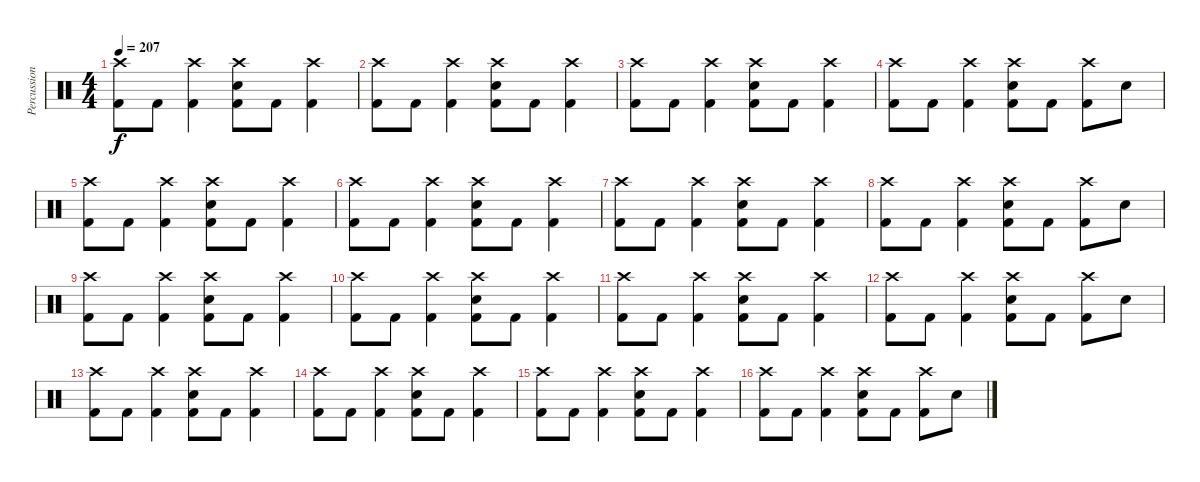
\track ("Percussion" "Percussion") {instrument percussion}
\staff {score}
\articulation defaults
\ts (4 4)
\tempo 207
\clef neutral
\ks c
("Crash high (hit)" "Kick (hit) 2").8{dy f} "Kick (hit) 2".8 ("Crash high (hit)" "Kick (hit) 2").4 ("Crash high (hit)" "Snare (hit) 2" "Kick (hit) 2").8 "Kick (hit) 2".8 ("Crash high (hit)" "Kick (hit) 2").4 |
("Crash high (hit)" "Kick (hit) 2").8 "Kick (hit) 2".8 ("Crash high (hit)" "Kick (hit) 2").4 ("Crash high (hit)" "Snare (hit) 2" "Kick (hit) 2").8 "Kick (hit) 2".8 ("Crash high (hit)" "Kick (hit) 2").4 |
("Crash high (hit)" "Kick (hit) 2").8 "Kick (hit) 2".8 ("Crash high (hit)" "Kick (hit) 2").4 ("Crash high (hit)" "Snare (hit) 2" "Kick (hit) 2").8 "Kick (hit) 2".8 ("Crash high (hit)" "Kick (hit) 2").4 |
("Crash high (hit)" "Kick (hit) 2").8 "Kick (hit) 2".8 ("Crash high (hit)" "Kick (hit) 2").4 ("Crash high (hit)" "Snare (hit) 2" "Kick (hit) 2").8 "Kick (hit) 2".8 ("Crash high (hit)" "Kick (hit) 2").8 "Snare (hit) 2".8 |
("Crash high (hit)" "Kick (hit) 2").8 "Kick (hit) 2".8 ("Crash high (hit)" "Kick (hit) 2").4 ("Crash high (hit)" "Snare (hit) 2" "Kick (hit) 2").8 "Kick (hit) 2".8 ("Crash high (hit)" "Kick (hit) 2").4 |
("Crash high (hit)" "Kick (hit) 2").8 "Kick (hit) 2".8 ("Crash high (hit)" "Kick (hit) 2").4 ("Crash high (hit)" "Snare (hit) 2" "Kick (hit) 2").8 "Kick (hit) 2".8 ("Crash high (hit)" "Kick (hit) 2").4 |
("Crash high (hit)" "Kick (hit) 2").8 "Kick (hit) 2".8 ("Crash high (hit)" "Kick (hit) 2").4 ("Crash high (hit)" "Snare (hit) 2" "Kick (hit) 2").8 "Kick (hit) 2".8 ("Crash high (hit)" "Kick (hit) 2").4 |
("Crash high (hit)" "Kick (hit) 2").8 "Kick (hit) 2".8 ("Crash high (hit)" "Kick (hit) 2").4 ("Crash high (hit)" "Snare (hit) 2" "Kick (hit) 2").8 "Kick (hit) 2".8 ("Crash high (hit)" "Kick (hit) 2").8 "Snare (hit) 2".8 |
("Crash high (hit)" "Kick (hit) 2").8 "Kick (hit) 2".8 ("Crash high (hit)" "Kick (hit) 2").4 ("Crash high (hit)" "Snare (hit) 2" "Kick (hit) 2").8 "Kick (hit) 2".8 ("Crash high (hit)" "Kick (hit) 2").4 |
("Crash high (hit)" "Kick (hit) 2").8 "Kick (hit) 2".8 ("Crash high (hit)" "Kick (hit) 2").4 ("Crash high (hit)" "Snare (hit) 2" "Kick (hit) 2").8 "Kick (hit) 2".8 ("Crash high (hit)" "Kick (hit) 2").4 |
("Crash high (hit)" "Kick (hit) 2").8 "Kick (hit) 2".8 ("Crash high (hit)" "Kick (hit) 2").4 ("Crash high (hit)" "Snare (hit) 2" "Kick (hit) 2").8 "Kick (hit) 2".8 ("Crash high (hit)" "Kick (hit) 2").4 |
("Crash high (hit)" "Kick (hit) 2").8 "Kick (hit) 2".8 ("Crash high (hit)" "Kick (hit) 2").4 ("Crash high (hit)" "Snare (hit) 2" "Kick (hit) 2").8 "Kick (hit) 2".8 ("Crash high (hit)" "Kick (hit) 2").8 "Snare (hit) 2".8 |
("Crash high (hit)" "Kick (hit) 2").8 "Kick (hit) 2".8 ("Crash high (hit)" "Kick (hit) 2").4 ("Crash high (hit)" "Snare (hit) 2" "Kick (hit) 2").8 "Kick (hit) 2".8 ("Crash high (hit)" "Kick (hit) 2").4 |
("Crash high (hit)" "Kick (hit) 2").8 "Kick (hit) 2".8 ("Crash high (hit)" "Kick (hit) 2").4 ("Crash high (hit)" "Snare (hit) 2" "Kick (hit) 2").8 "Kick (hit) 2".8 ("Crash high (hit)" "Kick (hit) 2").4 |
("Crash high (hit)" "Kick (hit) 2").8 "Kick (hit) 2".8 ("Crash high (hit)" "Kick (hit) 2").4 ("Crash high (hit)" "Snare (hit) 2" "Kick (hit) 2").8 "Kick (hit) 2".8 ("Crash high (hit)" "Kick (hit) 2").4 |
("Crash high (hit)" "Kick (hit) 2").8 "Kick (hit) 2".8 ("Crash high (hit)" "Kick (hit) 2").4 ("Crash high (hit)" "Snare (hit) 2" "Kick (hit) 2").8 "Kick (hit) 2".8 ("Crash high (hit)" "Kick (hit) 2").8 "Snare (hit) 2".8
